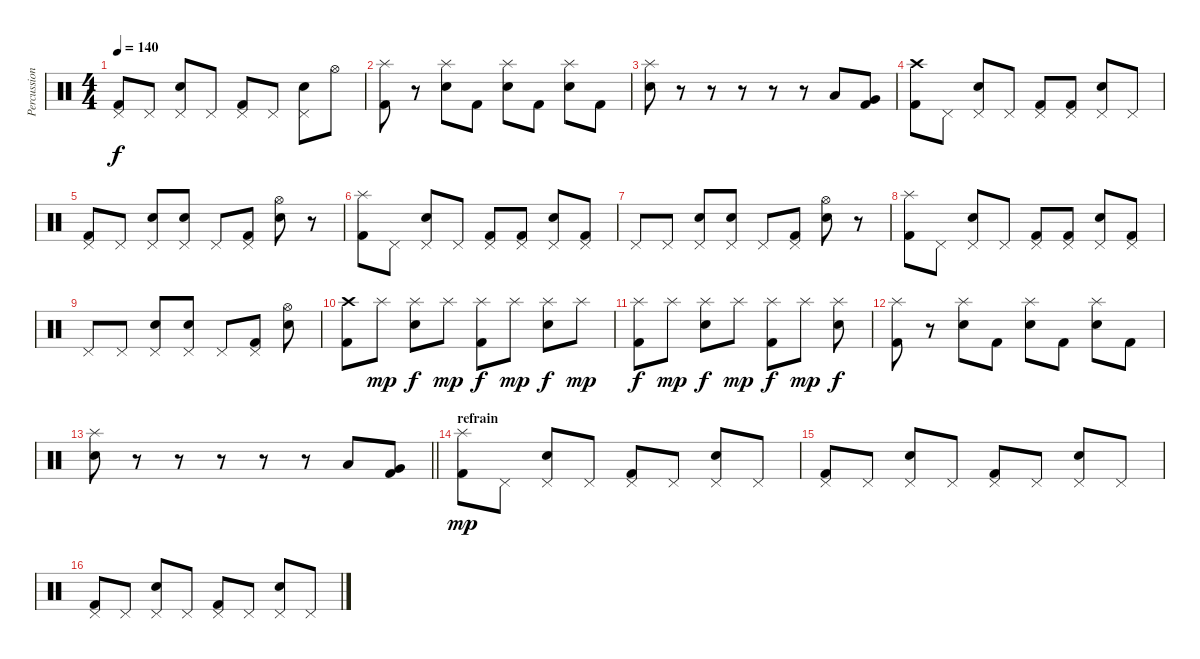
\track ("Percussions" "Percussion") {instrument percussion}
\staff {score}
\articulation defaults
\ts (4 4)
\tempo 140
\clef neutral
\ks c
("Pedal Hi-Hat (hit)" "Kick (hit) 2").8{dy f} "Pedal Hi-Hat (hit)".8 ("Pedal Hi-Hat (hit)" "Electric Snare (hit)").8 "Pedal Hi-Hat (hit)".8 ("Pedal Hi-Hat (hit)" "Kick (hit) 2").8 "Pedal Hi-Hat (hit)".8 ("Pedal Hi-Hat (hit)" "Electric Snare (hit)").8 "Hi-Hat (open)".8 |
("Splash (hit)" "Kick (hit) 2").8 r.8 ("Splash (hit)" "Snare (hit) 2").8 "Kick (hit) 2".8 ("Splash (hit)" "Snare (hit) 2").8 "Kick (hit) 2".8 ("Splash (hit)" "Snare (hit) 2").8 "Kick (hit) 2".8 |
("Splash (hit)" "Electric Snare (hit)").8 r.8 r.8 r.8 r.8 r.8 "Low Tom (hit)".8 ("Very Low Tom (hit)" "Kick (hit) 2").8 |
("Crash high (hit)" "Kick (hit) 2").8 "Pedal Hi-Hat (hit)".8 ("Pedal Hi-Hat (hit)" "Electric Snare (hit)").8 "Pedal Hi-Hat (hit)".8 ("Pedal Hi-Hat (hit)" "Kick (hit) 2").8 ("Pedal Hi-Hat (hit)" "Kick (hit) 2").8 ("Pedal Hi-Hat (hit)" "Electric Snare (hit)").8 "Pedal Hi-Hat (hit)".8 |
("Pedal Hi-Hat (hit)" "Kick (hit) 2").8 "Pedal Hi-Hat (hit)".8 ("Pedal Hi-Hat (hit)" "Electric Snare (hit)").8 ("Pedal Hi-Hat (hit)" "Electric Snare (hit)").8 "Pedal Hi-Hat (hit)".8 ("Pedal Hi-Hat (hit)" "Kick (hit) 2").8 ("Hi-Hat (open)" "Electric Snare (hit)").8 r.8 |
("Splash (hit)" "Kick (hit) 2").8 "Pedal Hi-Hat (hit)".8 ("Pedal Hi-Hat (hit)" "Electric Snare (hit)").8 "Pedal Hi-Hat (hit)".8 ("Pedal Hi-Hat (hit)" "Kick (hit) 2").8 ("Pedal Hi-Hat (hit)" "Kick (hit) 2").8 ("Pedal Hi-Hat (hit)" "Electric Snare (hit)").8 ("Pedal Hi-Hat (hit)" "Kick (hit) 2").8 |
"Pedal Hi-Hat (hit)".8 "Pedal Hi-Hat (hit)".8 ("Pedal Hi-Hat (hit)" "Electric Snare (hit)").8 ("Pedal Hi-Hat (hit)" "Electric Snare (hit)").8 "Pedal Hi-Hat (hit)".8 ("Pedal Hi-Hat (hit)" "Kick (hit) 2").8 ("Hi-Hat (open)" "Electric Snare (hit)").8 r.8 |
("Splash (hit)" "Kick (hit) 2").8 "Pedal Hi-Hat (hit)".8 ("Pedal Hi-Hat (hit)" "Electric Snare (hit)").8 "Pedal Hi-Hat (hit)".8 ("Pedal Hi-Hat (hit)" "Kick (hit) 2").8 ("Pedal Hi-Hat (hit)" "Kick (hit) 2").8 ("Pedal Hi-Hat (hit)" "Electric Snare (hit)").8 ("Pedal Hi-Hat (hit)" "Kick (hit) 2").8 |
"Pedal Hi-Hat (hit)".8 "Pedal Hi-Hat (hit)".8 ("Pedal Hi-Hat (hit)" "Electric Snare (hit)").8 ("Pedal Hi-Hat (hit)" "Electric Snare (hit)").8 "Pedal Hi-Hat (hit)".8 ("Pedal Hi-Hat (hit)" "Kick (hit) 2").8 ("Hi-Hat (open)" "Electric Snare (hit)").8 |
("Crash high (hit)" "Kick (hit) 2").8 "Splash (hit)".8{dy mp} ("Splash (hit)" "Electric Snare (hit)").8{dy f} "Splash (hit)".8{dy mp} ("Splash (hit)" "Kick (hit) 2").8{dy f} "Splash (hit)".8{dy mp} ("Splash (hit)" "Electric Snare (hit)").8{dy f} "Splash (hit)".8{dy mp} |
("Splash (hit)" "Kick (hit) 2").8{dy f} "Splash (hit)".8{dy mp} ("Splash (hit)" "Electric Snare (hit)").8{dy f} "Splash (hit)".8{dy mp} ("Splash (hit)" "Kick (hit) 2").8{dy f} "Splash (hit)".8{dy mp} ("Splash (hit)" "Electric Snare (hit)").8{dy f} |
("Splash (hit)" "Kick (hit) 2").8 r.8 ("Splash (hit)" "Snare (hit) 2").8 "Kick (hit) 2".8 ("Splash (hit)" "Snare (hit) 2").8 "Kick (hit) 2".8 ("Splash (hit)" "Snare (hit) 2").8 "Kick (hit) 2".8 |
\barLineRight lightlight
("Splash (hit)" "Electric Snare (hit)").8 r.8 r.8 r.8 r.8 r.8 "Low Tom (hit)".8 ("Very Low Tom (hit)" "Kick (hit) 2").8 |
\section ("" "refrain")
("Splash (hit)" "Kick (hit) 2").8{dy mp} "Pedal Hi-Hat (hit)".8 ("Pedal Hi-Hat (hit)" "Electric Snare (hit)").8 "Pedal Hi-Hat (hit)".8 ("Pedal Hi-Hat (hit)" "Kick (hit) 2").8 "Pedal Hi-Hat (hit)".8 ("Pedal Hi-Hat (hit)" "Electric Snare (hit)").8 "Pedal Hi-Hat (hit)".8 |
("Pedal Hi-Hat (hit)" "Kick (hit) 2").8 "Pedal Hi-Hat (hit)".8 ("Pedal Hi-Hat (hit)" "Electric Snare (hit)").8 "Pedal Hi-Hat (hit)".8 ("Pedal Hi-Hat (hit)" "Kick (hit) 2").8 "Pedal Hi-Hat (hit)".8 ("Pedal Hi-Hat (hit)" "Electric Snare (hit)").8 "Pedal Hi-Hat (hit)".8 |
("Pedal Hi-Hat (hit)" "Kick (hit) 2").8 "Pedal Hi-Hat (hit)".8 ("Pedal Hi-Hat (hit)" "Electric Snare (hit)").8 "Pedal Hi-Hat (hit)".8 ("Pedal Hi-Hat (hit)" "Kick (hit) 2").8 "Pedal Hi-Hat (hit)".8 ("Pedal Hi-Hat (hit)" "Electric Snare (hit)").8 "Pedal Hi-Hat (hit)".8
